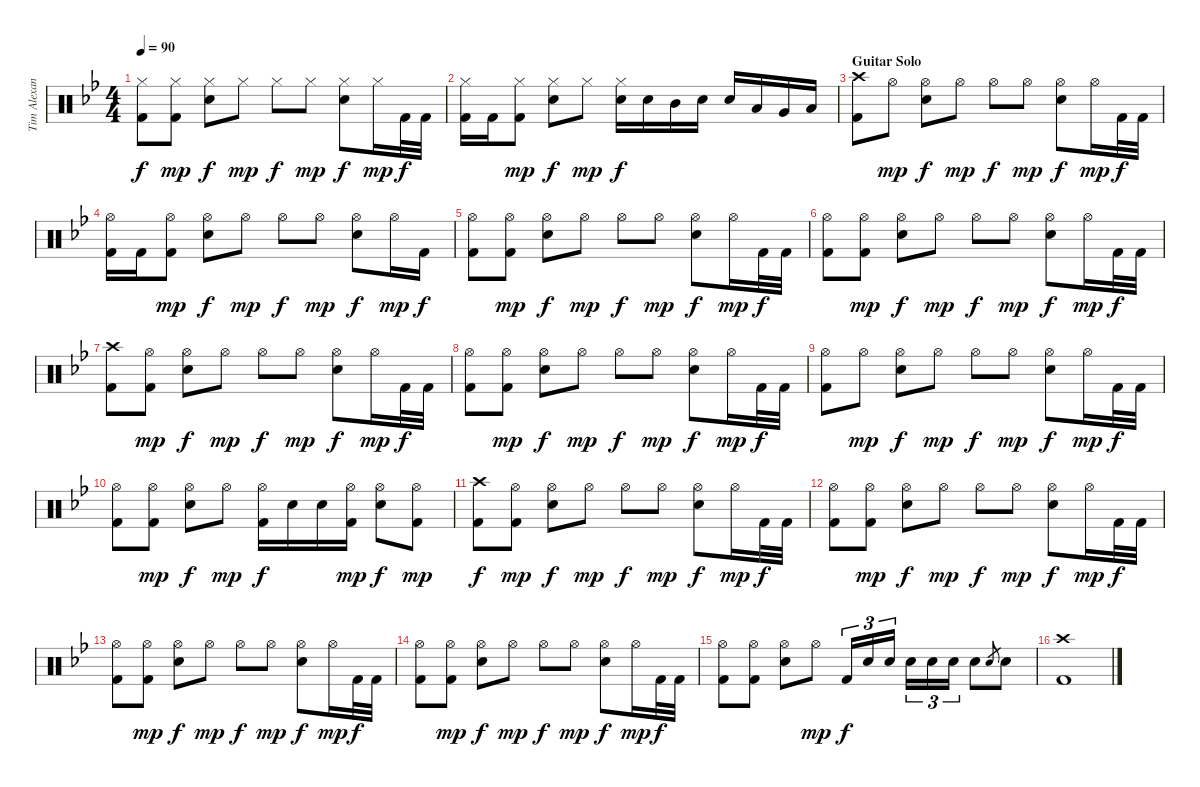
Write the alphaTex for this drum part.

\track ("Tim Alexander - Drums" "Tim Alexan") {instrument percussion}
\staff {score}
\articulation defaults
\ts (4 4)
\tempo 90
\clef neutral
\ks bb
("Hi-Hat (closed)" "Kick (hit) 2").8{dy f} ("Hi-Hat (closed)" "Kick (hit) 2").8{dy mp} ("Hi-Hat (closed)" "Snare (hit) 2").8{dy f} "Hi-Hat (closed)".8{dy mp} "Hi-Hat (closed)".8{dy f} "Hi-Hat (closed)".8{dy mp} ("Hi-Hat (closed)" "Snare (hit) 2").8{dy f} "Hi-Hat (closed)".16{dy mp} "Kick (hit) 2".32{dy f} "Kick (hit) 2".32 |
("Hi-Hat (closed)" "Kick (hit) 2").16 "Kick (hit) 2".16 ("Hi-Hat (closed)" "Kick (hit) 2").8{dy mp} ("Hi-Hat (closed)" "Snare (hit) 2").8{dy f} "Hi-Hat (closed)".8{dy mp} ("Hi-Hat (closed)" "Snare (hit) 2").16{dy f} "Snare (hit) 2".16 "Mid Tom (hit)".16 "Snare (hit) 2".16 "Snare (hit) 2".16 "Low Tom (hit)".16 "Very Low Tom (hit)".16 "Low Floor Tom (hit)".16 |
\section ("" "Guitar Solo")
("Crash high (hit)" "Kick (hit) 2").8 "Hi-Hat (open)".8{dy mp} ("Hi-Hat (open)" "Snare (hit) 2").8{dy f} "Hi-Hat (open)".8{dy mp} "Hi-Hat (open)".8{dy f} "Hi-Hat (open)".8{dy mp} ("Hi-Hat (open)" "Snare (hit) 2").8{dy f} "Hi-Hat (open)".16{dy mp} "Kick (hit) 2".32{dy f} "Kick (hit) 2".32 |
("Hi-Hat (open)" "Kick (hit) 2").16 "Kick (hit) 2".16 ("Hi-Hat (open)" "Kick (hit) 2").8{dy mp} ("Hi-Hat (open)" "Snare (hit) 2").8{dy f} "Hi-Hat (open)".8{dy mp} "Hi-Hat (open)".8{dy f} "Hi-Hat (open)".8{dy mp} ("Hi-Hat (open)" "Snare (hit) 2").8{dy f} "Hi-Hat (open)".16{dy mp} "Kick (hit) 2".16{dy f} |
("Hi-Hat (open)" "Kick (hit) 2").8 ("Hi-Hat (open)" "Kick (hit) 2").8{dy mp} ("Hi-Hat (open)" "Snare (hit) 2").8{dy f} "Hi-Hat (open)".8{dy mp} "Hi-Hat (open)".8{dy f} "Hi-Hat (open)".8{dy mp} ("Hi-Hat (open)" "Snare (hit) 2").8{dy f} "Hi-Hat (open)".16{dy mp} "Kick (hit) 2".32{dy f} "Kick (hit) 2".32 |
("Hi-Hat (open)" "Kick (hit) 2").8 ("Hi-Hat (open)" "Kick (hit) 2").8{dy mp} ("Hi-Hat (open)" "Snare (hit) 2").8{dy f} "Hi-Hat (open)".8{dy mp} "Hi-Hat (open)".8{dy f} "Hi-Hat (open)".8{dy mp} ("Hi-Hat (open)" "Snare (hit) 2").8{dy f} "Hi-Hat (open)".16{dy mp} "Kick (hit) 2".32{dy f} "Kick (hit) 2".32 |
("Crash high (hit)" "Kick (hit) 2").8 ("Hi-Hat (open)" "Kick (hit) 2").8{dy mp} ("Hi-Hat (open)" "Snare (hit) 2").8{dy f} "Hi-Hat (open)".8{dy mp} "Hi-Hat (open)".8{dy f} "Hi-Hat (open)".8{dy mp} ("Hi-Hat (open)" "Snare (hit) 2").8{dy f} "Hi-Hat (open)".16{dy mp} "Kick (hit) 2".32{dy f} "Kick (hit) 2".32 |
("Hi-Hat (open)" "Kick (hit) 2").8 ("Hi-Hat (open)" "Kick (hit) 2").8{dy mp} ("Hi-Hat (open)" "Snare (hit) 2").8{dy f} "Hi-Hat (open)".8{dy mp} "Hi-Hat (open)".8{dy f} "Hi-Hat (open)".8{dy mp} ("Hi-Hat (open)" "Snare (hit) 2").8{dy f} "Hi-Hat (open)".16{dy mp} "Kick (hit) 2".32{dy f} "Kick (hit) 2".32 |
("Hi-Hat (open)" "Kick (hit) 2").8 "Hi-Hat (open)".8{dy mp} ("Hi-Hat (open)" "Snare (hit) 2").8{dy f} "Hi-Hat (open)".8{dy mp} "Hi-Hat (open)".8{dy f} "Hi-Hat (open)".8{dy mp} ("Hi-Hat (open)" "Snare (hit) 2").8{dy f} "Hi-Hat (open)".16{dy mp} "Kick (hit) 2".32{dy f} "Kick (hit) 2".32 |
("Hi-Hat (open)" "Kick (hit) 2").8 ("Hi-Hat (open)" "Kick (hit) 2").8{dy mp} ("Hi-Hat (open)" "Snare (hit) 2").8{dy f} "Hi-Hat (open)".8{dy mp} ("Hi-Hat (open)" "Kick (hit) 2").16{dy f} "Snare (hit) 2".16 "Snare (hit) 2".16 ("Hi-Hat (open)" "Kick (hit) 2").16{dy mp} ("Hi-Hat (open)" "Snare (hit) 2").8{dy f} ("Hi-Hat (open)" "Kick (hit) 2").8{dy mp} |
("Crash high (hit)" "Kick (hit) 2").8{dy f} ("Hi-Hat (open)" "Kick (hit) 2").8{dy mp} ("Hi-Hat (open)" "Snare (hit) 2").8{dy f} "Hi-Hat (open)".8{dy mp} "Hi-Hat (open)".8{dy f} "Hi-Hat (open)".8{dy mp} ("Hi-Hat (open)" "Snare (hit) 2").8{dy f} "Hi-Hat (open)".16{dy mp} "Kick (hit) 2".32{dy f} "Kick (hit) 2".32 |
("Hi-Hat (open)" "Kick (hit) 2").8 ("Hi-Hat (open)" "Kick (hit) 2").8{dy mp} ("Hi-Hat (open)" "Snare (hit) 2").8{dy f} "Hi-Hat (open)".8{dy mp} "Hi-Hat (open)".8{dy f} "Hi-Hat (open)".8{dy mp} ("Hi-Hat (open)" "Snare (hit) 2").8{dy f} "Hi-Hat (open)".16{dy mp} "Kick (hit) 2".32{dy f} "Kick (hit) 2".32 |
("Hi-Hat (open)" "Kick (hit) 2").8 ("Hi-Hat (open)" "Kick (hit) 2").8{dy mp} ("Hi-Hat (open)" "Snare (hit) 2").8{dy f} "Hi-Hat (open)".8{dy mp} "Hi-Hat (open)".8{dy f} "Hi-Hat (open)".8{dy mp} ("Hi-Hat (open)" "Snare (hit) 2").8{dy f} "Hi-Hat (open)".16{dy mp} "Kick (hit) 2".32{dy f} "Kick (hit) 2".32 |
("Hi-Hat (open)" "Kick (hit) 2").8 ("Hi-Hat (open)" "Kick (hit) 2").8{dy mp} ("Hi-Hat (open)" "Snare (hit) 2").8{dy f} "Hi-Hat (open)".8{dy mp} "Hi-Hat (open)".8{dy f} "Hi-Hat (open)".8{dy mp} ("Hi-Hat (open)" "Snare (hit) 2").8{dy f} "Hi-Hat (open)".16{dy mp} "Kick (hit) 2".32{dy f} "Kick (hit) 2".32 |
("Hi-Hat (open)" "Kick (hit) 2").8 ("Hi-Hat (open)" "Kick (hit) 2").8 ("Hi-Hat (open)" "Snare (hit) 2").8 "Hi-Hat (open)".8{dy mp} "Kick (hit) 2".16{tu (3 2) dy f} "Snare (hit) 2".16{tu (3 2)} "Snare (hit) 2".16{tu (3 2)} "Snare (hit) 2".16{tu (3 2)} "Snare (hit) 2".16{tu (3 2)} "Snare (hit) 2".16{tu (3 2)} "Snare (hit) 2".8 "Snare (hit) 2".8{gr} "Snare (hit) 2".8 |
("Crash high (hit)" "Kick (hit) 2").1
